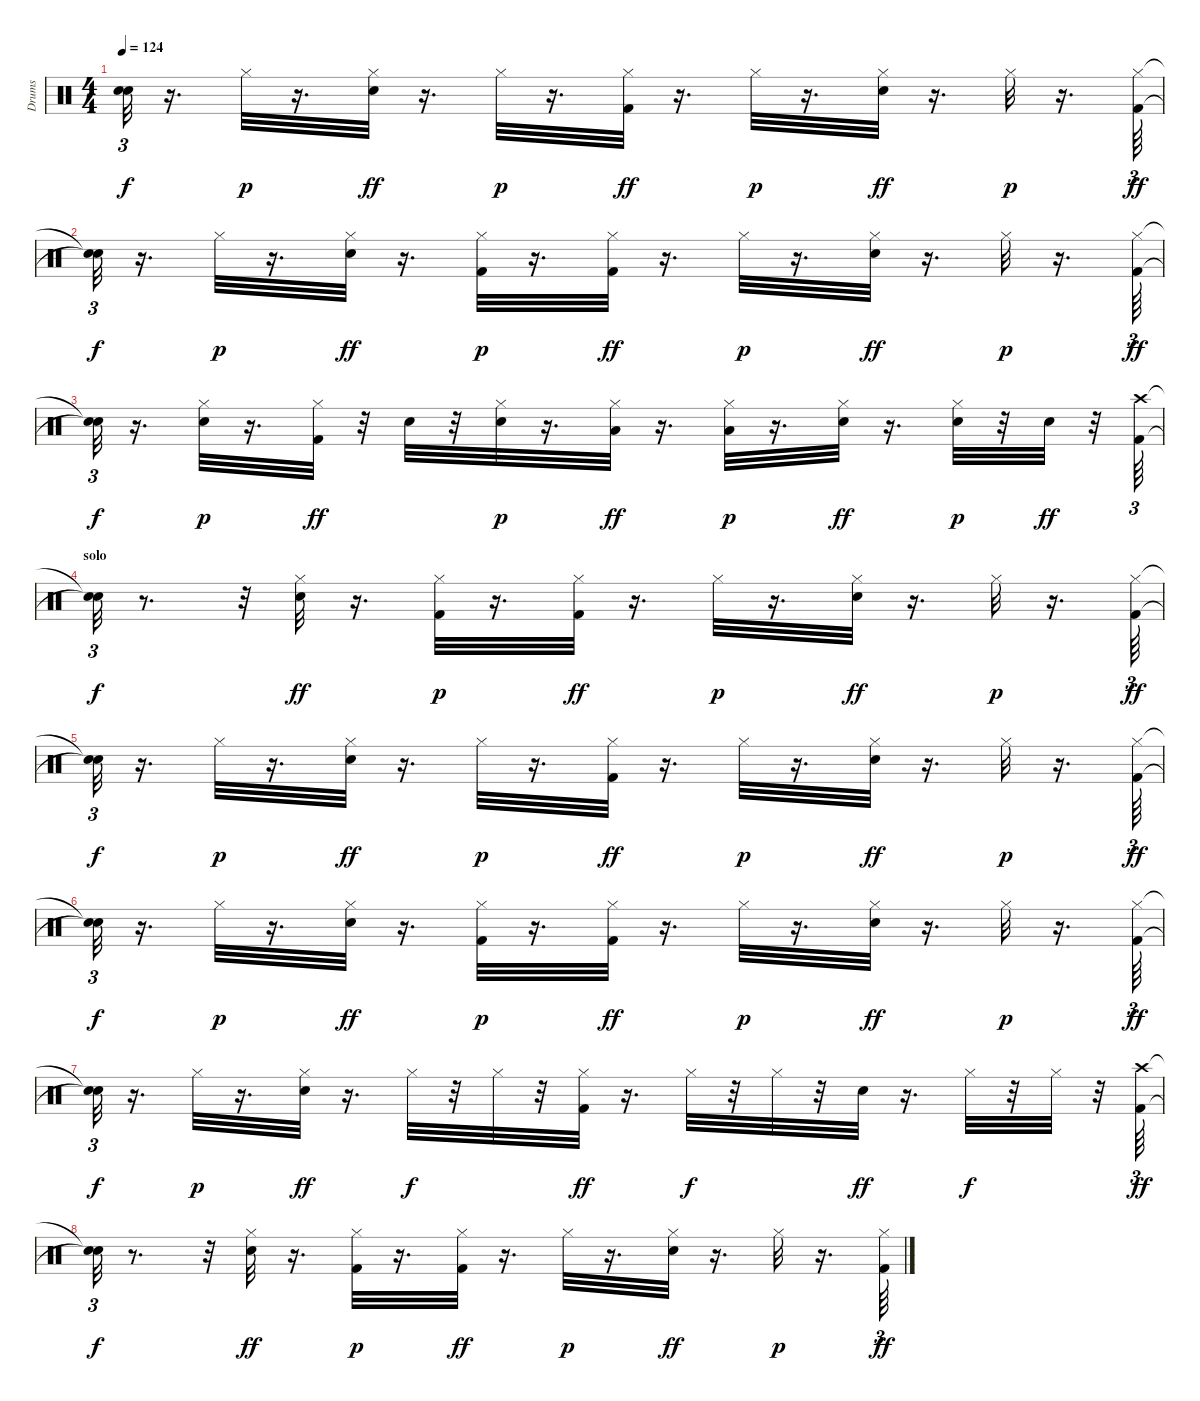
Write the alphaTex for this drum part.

\track ("Drums" "Drums") {instrument percussion}
\staff {score}
\articulation defaults
\ts (4 4)
\tempo 124
\clef neutral
\ks c
("Snare (hit)"{t} "Snare (hit)"{t}).32{tu (3 2) dy f} r.16{d} "Hi-Hat (closed)".32{dy p} r.16{d} ("Snare (hit) 2" "Hi-Hat (closed)").32{dy ff} r.16{d} "Hi-Hat (closed)".32{dy p} r.16{d} ("Kick (hit) 2" "Hi-Hat (closed)").32{dy ff} r.16{d} "Hi-Hat (closed)".32{dy p} r.16{d} ("Snare (hit) 2" "Hi-Hat (closed)").32{dy ff} r.16{d} "Hi-Hat (closed)".32{dy p} r.16{d} ("Kick (hit) 2" "Hi-Hat (closed)").64{tu (3 2) dy ff} |
("Snare (hit)"{t} "Snare (hit)"{t}).32{tu (3 2) dy f} r.16{d} "Hi-Hat (closed)".32{dy p} r.16{d} ("Snare (hit) 2" "Hi-Hat (closed)").32{dy ff} r.16{d} ("Kick (hit) 2" "Hi-Hat (closed)").32{dy p} r.16{d} ("Kick (hit) 2" "Hi-Hat (closed)").32{dy ff} r.16{d} "Hi-Hat (closed)".32{dy p} r.16{d} ("Snare (hit) 2" "Hi-Hat (closed)").32{dy ff} r.16{d} "Hi-Hat (closed)".32{dy p} r.16{d} ("Kick (hit) 2" "Hi-Hat (closed)").64{tu (3 2) dy ff} |
("Snare (hit)"{t} "Snare (hit)"{t}).32{tu (3 2) dy f} r.16{d} ("Snare (hit) 2" "Hi-Hat (closed)").32{dy p} r.16{d} ("Kick (hit) 2" "Hi-Hat (closed)").32{dy ff} r.32 "Snare (hit) 2".32 r.32 ("Snare (hit) 2" "Hi-Hat (closed)").32{dy p} r.16{d} ("Hi-Hat (closed)" "Low Tom (hit)").32{dy ff} r.16{d} ("Low Floor Tom (hit)" "Hi-Hat (closed)").32{dy p} r.16{d} ("Snare (hit) 2" "Hi-Hat (closed)").32{dy ff} r.16{d} ("Snare (hit) 2" "Hi-Hat (closed)").32{dy p} r.32 "Snare (hit) 2".32{dy ff} r.32 ("Kick (hit) 2" "Crash high (hit)").64{tu (3 2)} |
\section ("" "solo")
("Snare (hit)"{t} "Snare (hit)"{t}).32{tu (3 2) dy f} r.8{d} r.32 ("Snare (hit) 2" "Hi-Hat (closed)").32{dy ff} r.16{d} ("Kick (hit) 2" "Hi-Hat (closed)").32{dy p} r.16{d} ("Kick (hit) 2" "Hi-Hat (closed)").32{dy ff} r.16{d} "Hi-Hat (closed)".32{dy p} r.16{d} ("Snare (hit) 2" "Hi-Hat (closed)").32{dy ff} r.16{d} "Hi-Hat (closed)".32{dy p} r.16{d} ("Kick (hit) 2" "Hi-Hat (closed)").64{tu (3 2) dy ff} |
("Snare (hit)"{t} "Snare (hit)"{t}).32{tu (3 2) dy f} r.16{d} "Hi-Hat (closed)".32{dy p} r.16{d} ("Snare (hit) 2" "Hi-Hat (closed)").32{dy ff} r.16{d} "Hi-Hat (closed)".32{dy p} r.16{d} ("Kick (hit) 2" "Hi-Hat (closed)").32{dy ff} r.16{d} "Hi-Hat (closed)".32{dy p} r.16{d} ("Snare (hit) 2" "Hi-Hat (closed)").32{dy ff} r.16{d} "Hi-Hat (closed)".32{dy p} r.16{d} ("Kick (hit) 2" "Hi-Hat (closed)").64{tu (3 2) dy ff} |
("Snare (hit)"{t} "Snare (hit)"{t}).32{tu (3 2) dy f} r.16{d} "Hi-Hat (closed)".32{dy p} r.16{d} ("Snare (hit) 2" "Hi-Hat (closed)").32{dy ff} r.16{d} ("Kick (hit) 2" "Hi-Hat (closed)").32{dy p} r.16{d} ("Kick (hit) 2" "Hi-Hat (closed)").32{dy ff} r.16{d} "Hi-Hat (closed)".32{dy p} r.16{d} ("Snare (hit) 2" "Hi-Hat (closed)").32{dy ff} r.16{d} "Hi-Hat (closed)".32{dy p} r.16{d} ("Kick (hit) 2" "Hi-Hat (closed)").64{tu (3 2) dy ff} |
("Snare (hit)"{t} "Snare (hit)"{t}).32{tu (3 2) dy f} r.16{d} "Hi-Hat (closed)".32{dy p} r.16{d} ("Snare (hit) 2" "Hi-Hat (closed)").32{dy ff} r.16{d} "Hi-Hat (closed)".32{dy f} r.32 "Hi-Hat (closed)".32 r.32 ("Kick (hit) 2" "Hi-Hat (closed)").32{dy ff} r.16{d} "Hi-Hat (closed)".32{dy f} r.32 "Hi-Hat (closed)".32 r.32 "Snare (hit) 2".32{dy ff} r.16{d} "Hi-Hat (closed)".32{dy f} r.32 "Hi-Hat (closed)".32 r.32 ("Kick (hit) 2" "Crash high (hit)").64{tu (3 2) dy ff} |
("Snare (hit)"{t} "Snare (hit)"{t}).32{tu (3 2) dy f} r.8{d} r.32 ("Snare (hit) 2" "Hi-Hat (closed)").32{dy ff} r.16{d} ("Kick (hit) 2" "Hi-Hat (closed)").32{dy p} r.16{d} ("Kick (hit) 2" "Hi-Hat (closed)").32{dy ff} r.16{d} "Hi-Hat (closed)".32{dy p} r.16{d} ("Snare (hit) 2" "Hi-Hat (closed)").32{dy ff} r.16{d} "Hi-Hat (closed)".32{dy p} r.16{d} ("Kick (hit) 2" "Hi-Hat (closed)").64{tu (3 2) dy ff}
